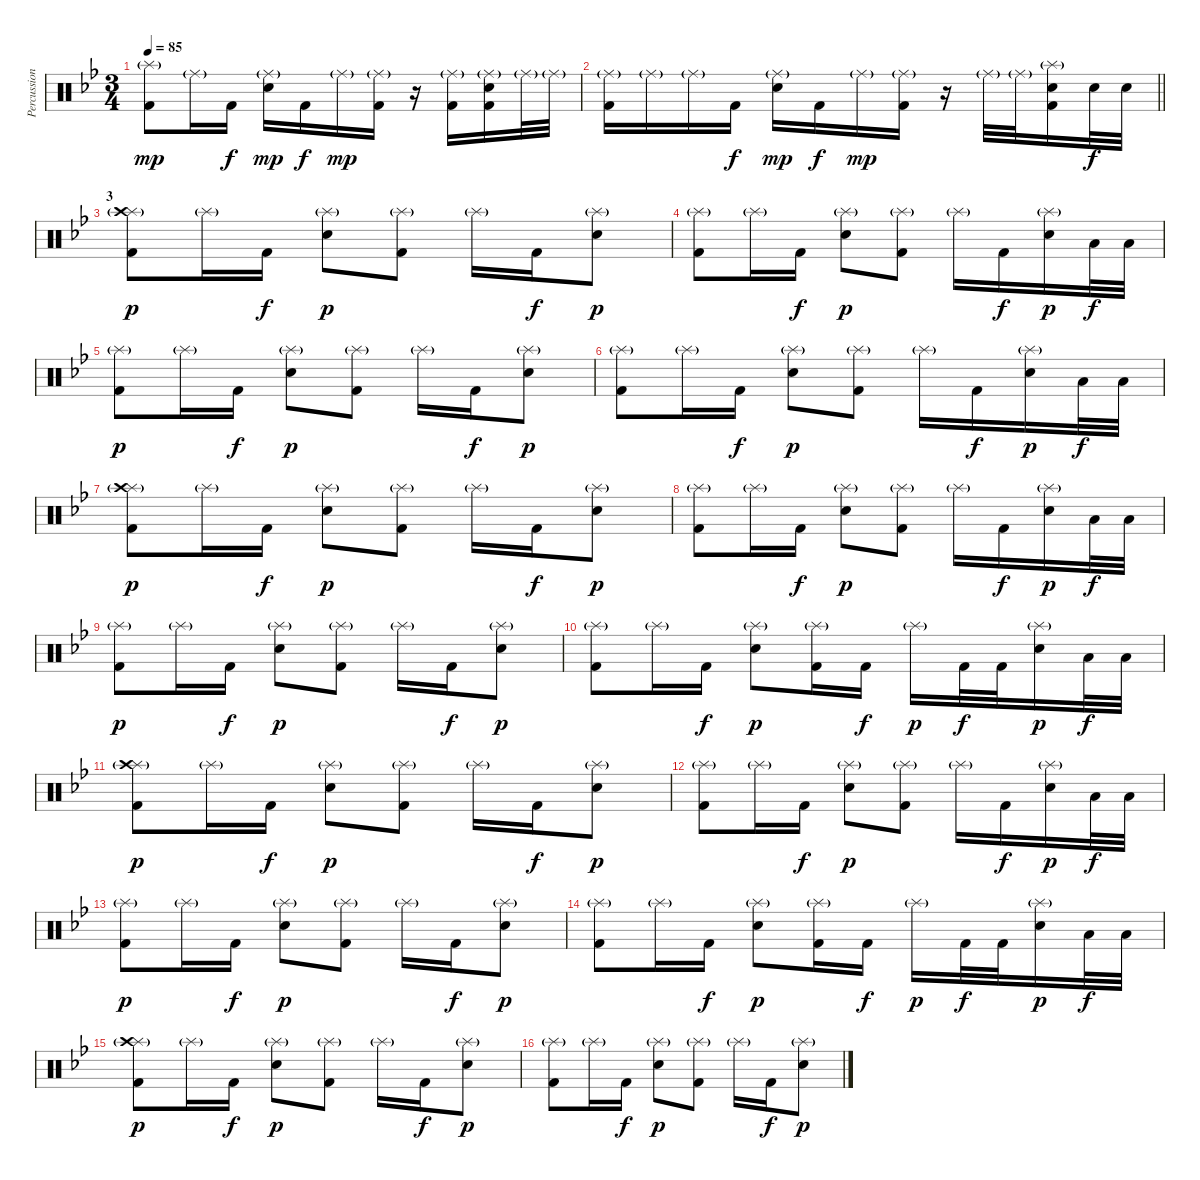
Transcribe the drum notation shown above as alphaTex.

\track ("Percussion" "Percussion") {instrument percussion}
\staff {score}
\articulation defaults
\ts (3 4)
\tempo 85
\clef neutral
\ks bb
("Splash (hit)"{g} "Kick (hit) 2").8{dy mp} "Ride (middle)"{g}.16 "Kick (hit) 2".16{dy f} ("Ride (middle)"{g} "Snare (hit) 2").16{dy mp} "Kick (hit) 2".16{dy f} "Ride (middle)"{g}.16{dy mp} ("Ride (middle)"{g} "Kick (hit) 2").16 r.16 ("Ride (middle)"{g} "Kick (hit) 2").16 ("Ride (middle)"{g} "Snare (hit) 2" "Kick (hit) 2").16 "Ride (middle)"{g}.32 "Ride (middle)"{g}.32 |
\barLineRight lightlight
("Ride (middle)"{g} "Kick (hit) 2").16 "Ride (middle)"{g}.16 "Ride (middle)"{g}.16 "Kick (hit) 2".16{dy f} ("Ride (middle)"{g} "Snare (hit) 2").16{dy mp} "Kick (hit) 2".16{dy f} "Ride (middle)"{g}.16{dy mp} ("Ride (middle)"{g} "Kick (hit) 2").16 r.16 "Ride (middle)"{g}.32 "Ride (middle)"{g}.32 ("Splash (hit)"{g} "Snare (hit) 2" "Kick (hit) 2").16 "Snare (hit) 2".32{dy f} "Snare (hit) 2".32 |
\section ("" "3")
("Splash (hit)"{g} "Crash high (hit)" "Kick (hit) 2").8{dy p} "Splash (hit)"{g}.16 "Kick (hit) 2".16{dy f} ("Splash (hit)"{g} "Snare (hit) 2").8{dy p} ("Splash (hit)"{g} "Kick (hit) 2").8 "Splash (hit)"{g}.16 "Kick (hit) 2".16{dy f} ("Splash (hit)"{g} "Snare (hit) 2").8{dy p} |
("Splash (hit)"{g} "Kick (hit) 2").8 "Splash (hit)"{g}.16 "Kick (hit) 2".16{dy f} ("Splash (hit)"{g} "Snare (hit) 2").8{dy p} ("Splash (hit)"{g} "Kick (hit) 2").8 "Splash (hit)"{g}.16 "Kick (hit) 2".16{dy f} ("Splash (hit)"{g} "Snare (hit) 2").16{dy p} "Low Floor Tom (hit)".32{dy f} "Low Floor Tom (hit)".32 |
("Splash (hit)"{g} "Kick (hit) 2").8{dy p} "Splash (hit)"{g}.16 "Kick (hit) 2".16{dy f} ("Splash (hit)"{g} "Snare (hit) 2").8{dy p} ("Splash (hit)"{g} "Kick (hit) 2").8 "Splash (hit)"{g}.16 "Kick (hit) 2".16{dy f} ("Splash (hit)"{g} "Snare (hit) 2").8{dy p} |
("Splash (hit)"{g} "Kick (hit) 2").8 "Splash (hit)"{g}.16 "Kick (hit) 2".16{dy f} ("Splash (hit)"{g} "Snare (hit) 2").8{dy p} ("Splash (hit)"{g} "Kick (hit) 2").8 "Splash (hit)"{g}.16 "Kick (hit) 2".16{dy f} ("Splash (hit)"{g} "Snare (hit) 2").16{dy p} "Low Floor Tom (hit)".32{dy f} "Low Floor Tom (hit)".32 |
("Splash (hit)"{g} "Crash high (hit)" "Kick (hit) 2").8{dy p} "Splash (hit)"{g}.16 "Kick (hit) 2".16{dy f} ("Splash (hit)"{g} "Snare (hit) 2").8{dy p} ("Splash (hit)"{g} "Kick (hit) 2").8 "Splash (hit)"{g}.16 "Kick (hit) 2".16{dy f} ("Splash (hit)"{g} "Snare (hit) 2").8{dy p} |
("Splash (hit)"{g} "Kick (hit) 2").8 "Splash (hit)"{g}.16 "Kick (hit) 2".16{dy f} ("Splash (hit)"{g} "Snare (hit) 2").8{dy p} ("Splash (hit)"{g} "Kick (hit) 2").8 "Splash (hit)"{g}.16 "Kick (hit) 2".16{dy f} ("Splash (hit)"{g} "Snare (hit) 2").16{dy p} "Low Floor Tom (hit)".32{dy f} "Low Floor Tom (hit)".32 |
("Splash (hit)"{g} "Kick (hit) 2").8{dy p} "Splash (hit)"{g}.16 "Kick (hit) 2".16{dy f} ("Splash (hit)"{g} "Snare (hit) 2").8{dy p} ("Splash (hit)"{g} "Kick (hit) 2").8 "Splash (hit)"{g}.16 "Kick (hit) 2".16{dy f} ("Splash (hit)"{g} "Snare (hit) 2").8{dy p} |
("Splash (hit)"{g} "Kick (hit) 2").8 "Splash (hit)"{g}.16 "Kick (hit) 2".16{dy f} ("Splash (hit)"{g} "Snare (hit) 2").8{dy p} ("Splash (hit)"{g} "Kick (hit) 2").16 "Kick (hit) 2".16{dy f} "Splash (hit)"{g}.16{dy p} "Kick (hit) 2".32{dy f} "Kick (hit) 2".32 ("Splash (hit)"{g} "Snare (hit) 2").16{dy p} "Low Floor Tom (hit)".32{dy f} "Low Floor Tom (hit)".32 |
("Splash (hit)"{g} "Crash high (hit)" "Kick (hit) 2").8{dy p} "Splash (hit)"{g}.16 "Kick (hit) 2".16{dy f} ("Splash (hit)"{g} "Snare (hit) 2").8{dy p} ("Splash (hit)"{g} "Kick (hit) 2").8 "Splash (hit)"{g}.16 "Kick (hit) 2".16{dy f} ("Splash (hit)"{g} "Snare (hit) 2").8{dy p} |
("Splash (hit)"{g} "Kick (hit) 2").8 "Splash (hit)"{g}.16 "Kick (hit) 2".16{dy f} ("Splash (hit)"{g} "Snare (hit) 2").8{dy p} ("Splash (hit)"{g} "Kick (hit) 2").8 "Splash (hit)"{g}.16 "Kick (hit) 2".16{dy f} ("Splash (hit)"{g} "Snare (hit) 2").16{dy p} "Low Floor Tom (hit)".32{dy f} "Low Floor Tom (hit)".32 |
("Splash (hit)"{g} "Kick (hit) 2").8{dy p} "Splash (hit)"{g}.16 "Kick (hit) 2".16{dy f} ("Splash (hit)"{g} "Snare (hit) 2").8{dy p} ("Splash (hit)"{g} "Kick (hit) 2").8 "Splash (hit)"{g}.16 "Kick (hit) 2".16{dy f} ("Splash (hit)"{g} "Snare (hit) 2").8{dy p} |
("Splash (hit)"{g} "Kick (hit) 2").8 "Splash (hit)"{g}.16 "Kick (hit) 2".16{dy f} ("Splash (hit)"{g} "Snare (hit) 2").8{dy p} ("Splash (hit)"{g} "Kick (hit) 2").16 "Kick (hit) 2".16{dy f} "Splash (hit)"{g}.16{dy p} "Kick (hit) 2".32{dy f} "Kick (hit) 2".32 ("Splash (hit)"{g} "Snare (hit) 2").16{dy p} "Low Floor Tom (hit)".32{dy f} "Low Floor Tom (hit)".32 |
("Splash (hit)"{g} "Crash high (hit)" "Kick (hit) 2").8{dy p} "Splash (hit)"{g}.16 "Kick (hit) 2".16{dy f} ("Splash (hit)"{g} "Snare (hit) 2").8{dy p} ("Splash (hit)"{g} "Kick (hit) 2").8 "Splash (hit)"{g}.16 "Kick (hit) 2".16{dy f} ("Splash (hit)"{g} "Snare (hit) 2").8{dy p} |
("Splash (hit)"{g} "Kick (hit) 2").8 "Splash (hit)"{g}.16 "Kick (hit) 2".16{dy f} ("Splash (hit)"{g} "Snare (hit) 2").8{dy p} ("Splash (hit)"{g} "Kick (hit) 2").8 "Splash (hit)"{g}.16 "Kick (hit) 2".16{dy f} ("Splash (hit)"{g} "Snare (hit) 2").8{dy p}
